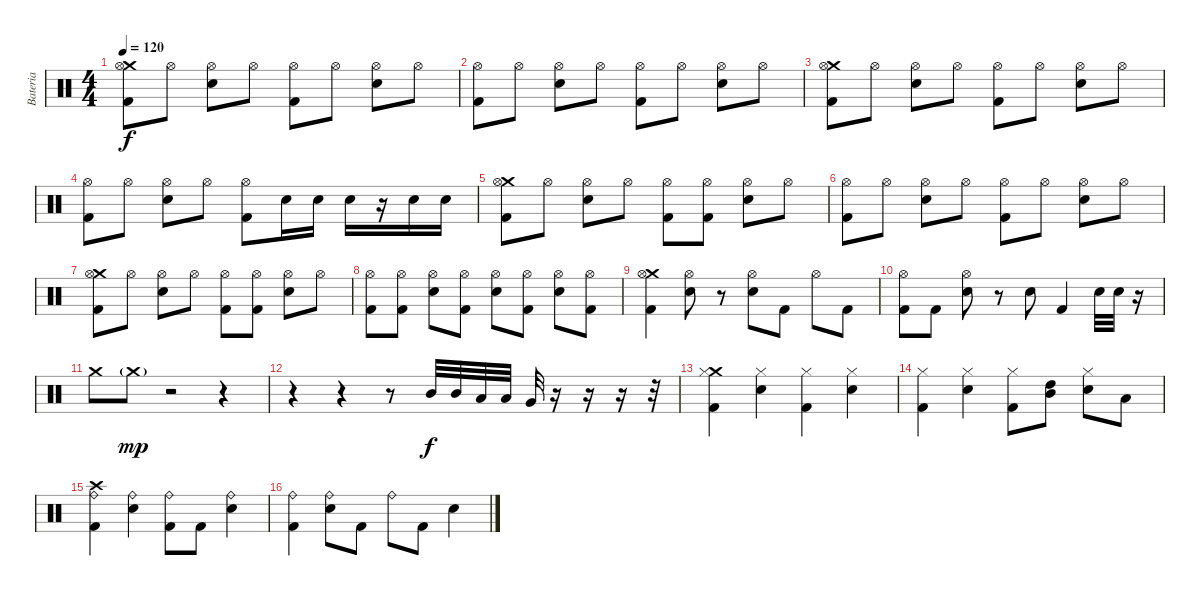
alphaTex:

\track ("Bateria" "Bateria") {instrument percussion}
\staff {score}
\articulation defaults
\ts (4 4)
\tempo 120
\clef neutral
\ks c
("Crash medium (hit)" "Hi-Hat (open)" "Kick (hit) 2").8{dy f} "Hi-Hat (open)".8 ("Hi-Hat (open)" "Electric Snare (hit)").8 "Hi-Hat (open)".8 ("Hi-Hat (open)" "Kick (hit) 2").8 "Hi-Hat (open)".8 ("Hi-Hat (open)" "Electric Snare (hit)").8 "Hi-Hat (open)".8 |
("Hi-Hat (open)" "Kick (hit) 2").8 "Hi-Hat (open)".8 ("Hi-Hat (open)" "Electric Snare (hit)").8 "Hi-Hat (open)".8 ("Hi-Hat (open)" "Kick (hit) 2").8 "Hi-Hat (open)".8 ("Hi-Hat (open)" "Electric Snare (hit)").8 "Hi-Hat (open)".8 |
("Crash medium (hit)" "Hi-Hat (open)" "Kick (hit) 2").8 "Hi-Hat (open)".8 ("Hi-Hat (open)" "Electric Snare (hit)").8 "Hi-Hat (open)".8 ("Hi-Hat (open)" "Kick (hit) 2").8 "Hi-Hat (open)".8 ("Hi-Hat (open)" "Electric Snare (hit)").8 "Hi-Hat (open)".8 |
("Hi-Hat (open)" "Kick (hit) 2").8 "Hi-Hat (open)".8 ("Hi-Hat (open)" "Electric Snare (hit)").8 "Hi-Hat (open)".8 ("Hi-Hat (open)" "Kick (hit) 2").8 "Electric Snare (hit)".16 "Electric Snare (hit)".16 "Electric Snare (hit)".16 r.16 "Electric Snare (hit)".16 "Electric Snare (hit)".16 |
("Crash medium (hit)" "Hi-Hat (open)" "Kick (hit) 2").8 "Hi-Hat (open)".8 ("Hi-Hat (open)" "Electric Snare (hit)").8 "Hi-Hat (open)".8 ("Hi-Hat (open)" "Kick (hit) 2").8 ("Hi-Hat (open)" "Kick (hit) 2").8 ("Hi-Hat (open)" "Electric Snare (hit)").8 "Hi-Hat (open)".8 |
("Hi-Hat (open)" "Kick (hit) 2").8 "Hi-Hat (open)".8 ("Hi-Hat (open)" "Electric Snare (hit)").8 "Hi-Hat (open)".8 ("Hi-Hat (open)" "Kick (hit) 2").8 "Hi-Hat (open)".8 ("Hi-Hat (open)" "Electric Snare (hit)").8 "Hi-Hat (open)".8 |
("Crash medium (hit)" "Hi-Hat (open)" "Kick (hit) 2").8 "Hi-Hat (open)".8 ("Hi-Hat (open)" "Electric Snare (hit)").8 "Hi-Hat (open)".8 ("Hi-Hat (open)" "Kick (hit) 2").8 ("Hi-Hat (open)" "Kick (hit) 2").8 ("Hi-Hat (open)" "Electric Snare (hit)").8 "Hi-Hat (open)".8 |
("Hi-Hat (open)" "Kick (hit) 2").8 ("Hi-Hat (open)" "Kick (hit) 2").8 ("Hi-Hat (open)" "Electric Snare (hit)").8 ("Hi-Hat (open)" "Kick (hit) 2").8 ("Hi-Hat (open)" "Electric Snare (hit)").8 ("Hi-Hat (open)" "Kick (hit) 2").8 ("Hi-Hat (open)" "Electric Snare (hit)").8 ("Hi-Hat (open)" "Kick (hit) 2").8 |
("Crash medium (hit)" "Hi-Hat (open)" "Kick (hit) 2").4 ("Hi-Hat (open)" "Electric Snare (hit)").8 r.8 ("Hi-Hat (open)" "Electric Snare (hit)").8 "Kick (hit) 2".8 "Hi-Hat (open)".8 "Kick (hit) 2".8 |
("Hi-Hat (open)" "Kick (hit) 2").8 "Kick (hit) 2".8 ("Hi-Hat (open)" "Electric Snare (hit)").8 r.8 "Electric Snare (hit)".8 "Kick (hit) 2".4 "Electric Snare (hit)".32 "Electric Snare (hit)".32 r.16 |
"Crash medium (hit)".8 "Crash medium (hit)"{g}.8{dy mp} r.2 r.4 |
r.4 r.4 r.8 "Mid Tom (hit)".32{dy f} "Mid Tom (hit)".32 "Low Tom (hit)".32 "Low Tom (hit)".32 "Very Low Tom (hit)".32 r.16 r.16 r.16 r.32 |
("Crash medium (hit)" "Hi-Hat (closed)" "Kick (hit) 2").4 ("Hi-Hat (closed)" "Electric Snare (hit)").4 ("Hi-Hat (closed)" "Kick (hit) 2").4 ("Hi-Hat (closed)" "Electric Snare (hit)").4 |
("Hi-Hat (closed)" "Kick (hit) 2").4 ("Hi-Hat (closed)" "Electric Snare (hit)").4 ("Hi-Hat (closed)" "Kick (hit) 2").8 ("High Tom (hit)" "Mid Tom (hit)").8 ("Hi-Hat (closed)" "Electric Snare (hit)").8 "Low Tom (hit)".8 |
("Crash high (hit)" "Ride (bell)" "Kick (hit) 2").4 ("Ride (bell)" "Electric Snare (hit)").4 ("Ride (bell)" "Kick (hit) 2").8 "Kick (hit) 2".8 ("Ride (bell)" "Electric Snare (hit)").4 |
("Ride (bell)" "Kick (hit) 2").4 ("Ride (bell)" "Electric Snare (hit)").8 "Kick (hit) 2".8 "Ride (bell)".8 "Kick (hit) 2".8 "Electric Snare (hit)".4
